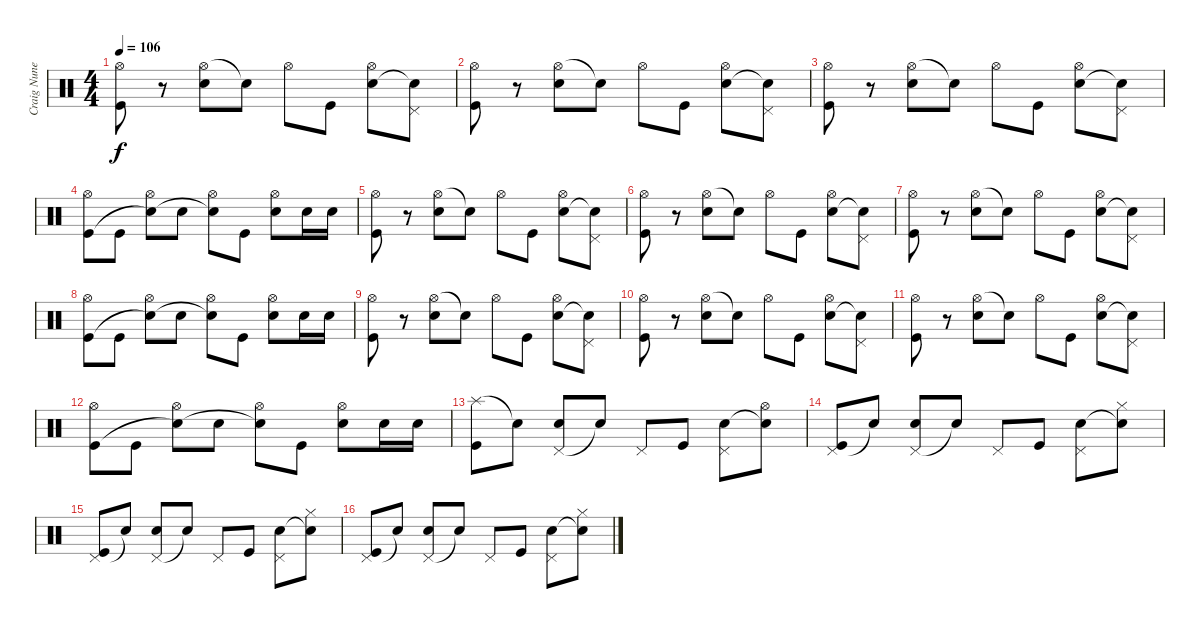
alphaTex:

\track ("Craig Nunenmacher (Drums)" "Craig Nune") {instrument percussion}
\staff {score}
\articulation defaults
\ts (4 4)
\tempo 106
\clef neutral
\ks c
("Hi-Hat (open)" "Kick (hit)").8{dy f} r.8 ("Hi-Hat (open)" "Electric Snare (hit)").8 "Snare (hit)"{t}.8 "Hi-Hat (open)".8 "Kick (hit)".8 ("Hi-Hat (open)" "Electric Snare (hit)").8 ("Pedal Hi-Hat (hit)" "Snare (hit)"{t}).8 |
("Hi-Hat (open)" "Kick (hit)").8 r.8 ("Hi-Hat (open)" "Electric Snare (hit)").8 "Snare (hit)"{t}.8 "Hi-Hat (open)".8 "Kick (hit)".8 ("Hi-Hat (open)" "Electric Snare (hit)").8 ("Pedal Hi-Hat (hit)" "Snare (hit)"{t}).8 |
("Hi-Hat (open)" "Kick (hit)").8 r.8 ("Hi-Hat (open)" "Electric Snare (hit)").8 "Snare (hit)"{t}.8 "Hi-Hat (open)".8 "Kick (hit)".8 ("Hi-Hat (open)" "Electric Snare (hit)").8 ("Pedal Hi-Hat (hit)" "Snare (hit)"{t}).8 |
("Hi-Hat (open)" "Kick (hit)").8 "Kick (hit)".8 ("Hi-Hat (open)" "Snare (hit)"{t}).8 "Electric Snare (hit)".8 ("Hi-Hat (open)" "Snare (hit)"{t}).8 "Kick (hit)".8 ("Hi-Hat (open)" "Electric Snare (hit)").8 "Electric Snare (hit)".16 "Electric Snare (hit)".16 |
("Hi-Hat (open)" "Kick (hit)").8 r.8 ("Hi-Hat (open)" "Electric Snare (hit)").8 "Snare (hit)"{t}.8 "Hi-Hat (open)".8 "Kick (hit)".8 ("Hi-Hat (open)" "Electric Snare (hit)").8 ("Pedal Hi-Hat (hit)" "Snare (hit)"{t}).8 |
("Hi-Hat (open)" "Kick (hit)").8 r.8 ("Hi-Hat (open)" "Electric Snare (hit)").8 "Snare (hit)"{t}.8 "Hi-Hat (open)".8 "Kick (hit)".8 ("Hi-Hat (open)" "Electric Snare (hit)").8 ("Pedal Hi-Hat (hit)" "Snare (hit)"{t}).8 |
("Hi-Hat (open)" "Kick (hit)").8 r.8 ("Hi-Hat (open)" "Electric Snare (hit)").8 "Snare (hit)"{t}.8 "Hi-Hat (open)".8 "Kick (hit)".8 ("Hi-Hat (open)" "Electric Snare (hit)").8 ("Pedal Hi-Hat (hit)" "Snare (hit)"{t}).8 |
("Hi-Hat (open)" "Kick (hit)").8 "Kick (hit)".8 ("Hi-Hat (open)" "Snare (hit)"{t}).8 "Electric Snare (hit)".8 ("Hi-Hat (open)" "Snare (hit)"{t}).8 "Kick (hit)".8 ("Hi-Hat (open)" "Electric Snare (hit)").8 "Electric Snare (hit)".16 "Electric Snare (hit)".16 |
("Hi-Hat (open)" "Kick (hit)").8 r.8 ("Hi-Hat (open)" "Electric Snare (hit)").8 "Snare (hit)"{t}.8 "Hi-Hat (open)".8 "Kick (hit)".8 ("Hi-Hat (open)" "Electric Snare (hit)").8 ("Pedal Hi-Hat (hit)" "Snare (hit)"{t}).8 |
("Hi-Hat (open)" "Kick (hit)").8 r.8 ("Hi-Hat (open)" "Electric Snare (hit)").8 "Snare (hit)"{t}.8 "Hi-Hat (open)".8 "Kick (hit)".8 ("Hi-Hat (open)" "Electric Snare (hit)").8 ("Pedal Hi-Hat (hit)" "Snare (hit)"{t}).8 |
("Hi-Hat (open)" "Kick (hit)").8 r.8 ("Hi-Hat (open)" "Electric Snare (hit)").8 "Snare (hit)"{t}.8 "Hi-Hat (open)".8 "Kick (hit)".8 ("Hi-Hat (open)" "Electric Snare (hit)").8 ("Pedal Hi-Hat (hit)" "Snare (hit)"{t}).8 |
("Hi-Hat (open)" "Kick (hit)").8 "Kick (hit)".8 ("Hi-Hat (open)" "Snare (hit)"{t}).8 "Electric Snare (hit)".8 ("Hi-Hat (open)" "Snare (hit)"{t}).8 "Kick (hit)".8 ("Hi-Hat (open)" "Electric Snare (hit)").8 "Electric Snare (hit)".16 "Electric Snare (hit)".16 |
("Splash (hit)" "Kick (hit)").8 "Snare (hit)"{t}.8 ("Pedal Hi-Hat (hit)" "Electric Snare (hit)").8 "Snare (hit)"{t}.8 "Pedal Hi-Hat (hit)".8 "Kick (hit)".8 ("Pedal Hi-Hat (hit)" "Electric Snare (hit)").8 ("Hi-Hat (open)" "Snare (hit)"{t}).8 |
("Pedal Hi-Hat (hit)" "Kick (hit)").8 "Snare (hit)"{t}.8 ("Pedal Hi-Hat (hit)" "Electric Snare (hit)").8 "Snare (hit)"{t}.8 "Pedal Hi-Hat (hit)".8 "Kick (hit)".8 ("Pedal Hi-Hat (hit)" "Electric Snare (hit)").8 ("Hi-Hat (closed)" "Snare (hit)"{t}).8 |
("Pedal Hi-Hat (hit)" "Kick (hit)").8 "Snare (hit)"{t}.8 ("Pedal Hi-Hat (hit)" "Electric Snare (hit)").8 "Snare (hit)"{t}.8 "Pedal Hi-Hat (hit)".8 "Kick (hit)".8 ("Pedal Hi-Hat (hit)" "Electric Snare (hit)").8 ("Hi-Hat (closed)" "Snare (hit)"{t}).8 |
("Pedal Hi-Hat (hit)" "Kick (hit)").8 "Snare (hit)"{t}.8 ("Pedal Hi-Hat (hit)" "Electric Snare (hit)").8 "Snare (hit)"{t}.8 "Pedal Hi-Hat (hit)".8 "Kick (hit)".8 ("Pedal Hi-Hat (hit)" "Electric Snare (hit)").8 ("Hi-Hat (closed)" "Snare (hit)"{t}).8
